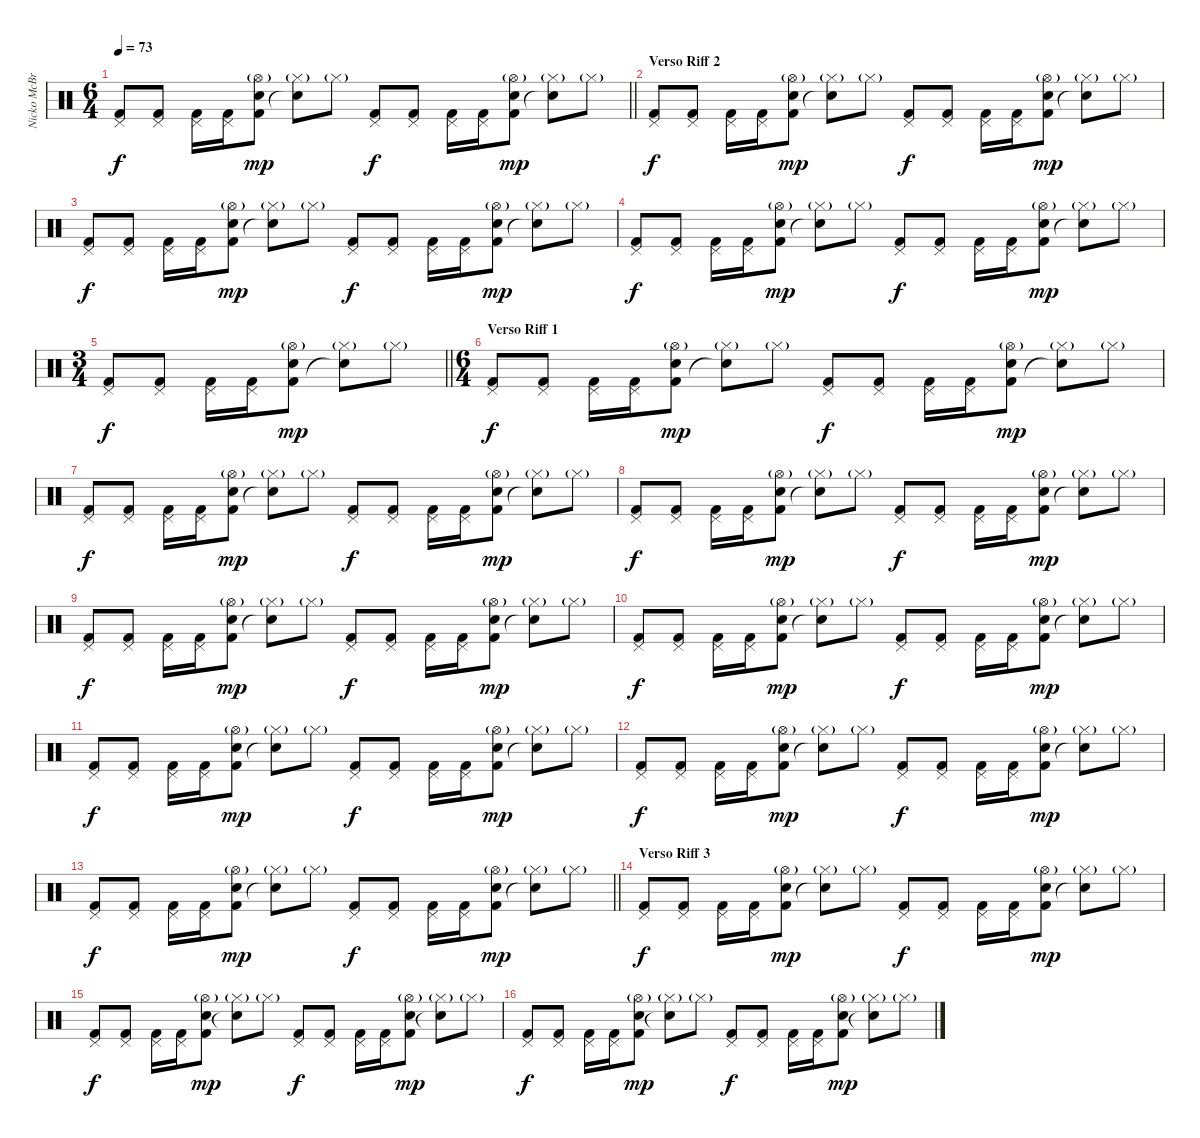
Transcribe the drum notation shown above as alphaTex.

\track ("Nicko McBrain" "Nicko McBr") {instrument percussion}
\staff {score}
\articulation defaults
\ts (6 4)
\tempo 73
\clef neutral
\barLineRight lightlight
\ks c
("Kick (hit) 2" "Pedal Hi-Hat (hit)").8{dy f} ("Kick (hit) 2" "Pedal Hi-Hat (hit)").8 ("Kick (hit) 2" "Pedal Hi-Hat (hit)").16 ("Kick (hit) 2" "Pedal Hi-Hat (hit)").16 ("Snare (hit) 2" "Kick (hit) 2" "Hi-Hat (open)"{g}).8{dy mp} ("Hi-Hat (closed)"{g} "Snare (hit)"{t}).8 "Hi-Hat (closed)"{g}.8 ("Kick (hit) 2" "Pedal Hi-Hat (hit)").8{dy f} ("Kick (hit) 2" "Pedal Hi-Hat (hit)").8 ("Kick (hit) 2" "Pedal Hi-Hat (hit)").16 ("Kick (hit) 2" "Pedal Hi-Hat (hit)").16 ("Snare (hit) 2" "Kick (hit) 2" "Hi-Hat (open)"{g}).8{dy mp} ("Hi-Hat (closed)"{g} "Snare (hit)"{t}).8 "Hi-Hat (closed)"{g}.8 |
\section ("" "Verso Riff 2")
("Kick (hit) 2" "Pedal Hi-Hat (hit)").8{dy f} ("Kick (hit) 2" "Pedal Hi-Hat (hit)").8 ("Kick (hit) 2" "Pedal Hi-Hat (hit)").16 ("Kick (hit) 2" "Pedal Hi-Hat (hit)").16 ("Snare (hit) 2" "Kick (hit) 2" "Hi-Hat (open)"{g}).8{dy mp} ("Hi-Hat (closed)"{g} "Snare (hit)"{t}).8 "Hi-Hat (closed)"{g}.8 ("Kick (hit) 2" "Pedal Hi-Hat (hit)").8{dy f} ("Kick (hit) 2" "Pedal Hi-Hat (hit)").8 ("Kick (hit) 2" "Pedal Hi-Hat (hit)").16 ("Kick (hit) 2" "Pedal Hi-Hat (hit)").16 ("Snare (hit) 2" "Kick (hit) 2" "Hi-Hat (open)"{g}).8{dy mp} ("Hi-Hat (closed)"{g} "Snare (hit)"{t}).8 "Hi-Hat (closed)"{g}.8 |
("Kick (hit) 2" "Pedal Hi-Hat (hit)").8{dy f} ("Kick (hit) 2" "Pedal Hi-Hat (hit)").8 ("Kick (hit) 2" "Pedal Hi-Hat (hit)").16 ("Kick (hit) 2" "Pedal Hi-Hat (hit)").16 ("Snare (hit) 2" "Kick (hit) 2" "Hi-Hat (open)"{g}).8{dy mp} ("Hi-Hat (closed)"{g} "Snare (hit)"{t}).8 "Hi-Hat (closed)"{g}.8 ("Kick (hit) 2" "Pedal Hi-Hat (hit)").8{dy f} ("Kick (hit) 2" "Pedal Hi-Hat (hit)").8 ("Kick (hit) 2" "Pedal Hi-Hat (hit)").16 ("Kick (hit) 2" "Pedal Hi-Hat (hit)").16 ("Snare (hit) 2" "Kick (hit) 2" "Hi-Hat (open)"{g}).8{dy mp} ("Hi-Hat (closed)"{g} "Snare (hit)"{t}).8 "Hi-Hat (closed)"{g}.8 |
("Kick (hit) 2" "Pedal Hi-Hat (hit)").8{dy f} ("Kick (hit) 2" "Pedal Hi-Hat (hit)").8 ("Kick (hit) 2" "Pedal Hi-Hat (hit)").16 ("Kick (hit) 2" "Pedal Hi-Hat (hit)").16 ("Snare (hit) 2" "Kick (hit) 2" "Hi-Hat (open)"{g}).8{dy mp} ("Hi-Hat (closed)"{g} "Snare (hit)"{t}).8 "Hi-Hat (closed)"{g}.8 ("Kick (hit) 2" "Pedal Hi-Hat (hit)").8{dy f} ("Kick (hit) 2" "Pedal Hi-Hat (hit)").8 ("Kick (hit) 2" "Pedal Hi-Hat (hit)").16 ("Kick (hit) 2" "Pedal Hi-Hat (hit)").16 ("Snare (hit) 2" "Kick (hit) 2" "Hi-Hat (open)"{g}).8{dy mp} ("Hi-Hat (closed)"{g} "Snare (hit)"{t}).8 "Hi-Hat (closed)"{g}.8 |
\ts (3 4)
\barLineRight lightlight
("Kick (hit) 2" "Pedal Hi-Hat (hit)").8{dy f} ("Kick (hit) 2" "Pedal Hi-Hat (hit)").8 ("Kick (hit) 2" "Pedal Hi-Hat (hit)").16 ("Kick (hit) 2" "Pedal Hi-Hat (hit)").16 ("Snare (hit) 2" "Kick (hit) 2" "Hi-Hat (open)"{g}).8{dy mp} ("Hi-Hat (closed)"{g} "Snare (hit)"{t}).8 "Hi-Hat (closed)"{g}.8 |
\ts (6 4)
\section ("" "Verso Riff 1")
("Kick (hit) 2" "Pedal Hi-Hat (hit)").8{dy f} ("Kick (hit) 2" "Pedal Hi-Hat (hit)").8 ("Kick (hit) 2" "Pedal Hi-Hat (hit)").16 ("Kick (hit) 2" "Pedal Hi-Hat (hit)").16 ("Snare (hit) 2" "Kick (hit) 2" "Hi-Hat (open)"{g}).8{dy mp} ("Hi-Hat (closed)"{g} "Snare (hit)"{t}).8 "Hi-Hat (closed)"{g}.8 ("Kick (hit) 2" "Pedal Hi-Hat (hit)").8{dy f} ("Kick (hit) 2" "Pedal Hi-Hat (hit)").8 ("Kick (hit) 2" "Pedal Hi-Hat (hit)").16 ("Kick (hit) 2" "Pedal Hi-Hat (hit)").16 ("Snare (hit) 2" "Kick (hit) 2" "Hi-Hat (open)"{g}).8{dy mp} ("Hi-Hat (closed)"{g} "Snare (hit)"{t}).8 "Hi-Hat (closed)"{g}.8 |
("Kick (hit) 2" "Pedal Hi-Hat (hit)").8{dy f} ("Kick (hit) 2" "Pedal Hi-Hat (hit)").8 ("Kick (hit) 2" "Pedal Hi-Hat (hit)").16 ("Kick (hit) 2" "Pedal Hi-Hat (hit)").16 ("Snare (hit) 2" "Kick (hit) 2" "Hi-Hat (open)"{g}).8{dy mp} ("Hi-Hat (closed)"{g} "Snare (hit)"{t}).8 "Hi-Hat (closed)"{g}.8 ("Kick (hit) 2" "Pedal Hi-Hat (hit)").8{dy f} ("Kick (hit) 2" "Pedal Hi-Hat (hit)").8 ("Kick (hit) 2" "Pedal Hi-Hat (hit)").16 ("Kick (hit) 2" "Pedal Hi-Hat (hit)").16 ("Snare (hit) 2" "Kick (hit) 2" "Hi-Hat (open)"{g}).8{dy mp} ("Hi-Hat (closed)"{g} "Snare (hit)"{t}).8 "Hi-Hat (closed)"{g}.8 |
("Kick (hit) 2" "Pedal Hi-Hat (hit)").8{dy f} ("Kick (hit) 2" "Pedal Hi-Hat (hit)").8 ("Kick (hit) 2" "Pedal Hi-Hat (hit)").16 ("Kick (hit) 2" "Pedal Hi-Hat (hit)").16 ("Snare (hit) 2" "Kick (hit) 2" "Hi-Hat (open)"{g}).8{dy mp} ("Hi-Hat (closed)"{g} "Snare (hit)"{t}).8 "Hi-Hat (closed)"{g}.8 ("Kick (hit) 2" "Pedal Hi-Hat (hit)").8{dy f} ("Kick (hit) 2" "Pedal Hi-Hat (hit)").8 ("Kick (hit) 2" "Pedal Hi-Hat (hit)").16 ("Kick (hit) 2" "Pedal Hi-Hat (hit)").16 ("Snare (hit) 2" "Kick (hit) 2" "Hi-Hat (open)"{g}).8{dy mp} ("Hi-Hat (closed)"{g} "Snare (hit)"{t}).8 "Hi-Hat (closed)"{g}.8 |
("Kick (hit) 2" "Pedal Hi-Hat (hit)").8{dy f} ("Kick (hit) 2" "Pedal Hi-Hat (hit)").8 ("Kick (hit) 2" "Pedal Hi-Hat (hit)").16 ("Kick (hit) 2" "Pedal Hi-Hat (hit)").16 ("Snare (hit) 2" "Kick (hit) 2" "Hi-Hat (open)"{g}).8{dy mp} ("Hi-Hat (closed)"{g} "Snare (hit)"{t}).8 "Hi-Hat (closed)"{g}.8 ("Kick (hit) 2" "Pedal Hi-Hat (hit)").8{dy f} ("Kick (hit) 2" "Pedal Hi-Hat (hit)").8 ("Kick (hit) 2" "Pedal Hi-Hat (hit)").16 ("Kick (hit) 2" "Pedal Hi-Hat (hit)").16 ("Snare (hit) 2" "Kick (hit) 2" "Hi-Hat (open)"{g}).8{dy mp} ("Hi-Hat (closed)"{g} "Snare (hit)"{t}).8 "Hi-Hat (closed)"{g}.8 |
("Kick (hit) 2" "Pedal Hi-Hat (hit)").8{dy f} ("Kick (hit) 2" "Pedal Hi-Hat (hit)").8 ("Kick (hit) 2" "Pedal Hi-Hat (hit)").16 ("Kick (hit) 2" "Pedal Hi-Hat (hit)").16 ("Snare (hit) 2" "Kick (hit) 2" "Hi-Hat (open)"{g}).8{dy mp} ("Hi-Hat (closed)"{g} "Snare (hit)"{t}).8 "Hi-Hat (closed)"{g}.8 ("Kick (hit) 2" "Pedal Hi-Hat (hit)").8{dy f} ("Kick (hit) 2" "Pedal Hi-Hat (hit)").8 ("Kick (hit) 2" "Pedal Hi-Hat (hit)").16 ("Kick (hit) 2" "Pedal Hi-Hat (hit)").16 ("Snare (hit) 2" "Kick (hit) 2" "Hi-Hat (open)"{g}).8{dy mp} ("Hi-Hat (closed)"{g} "Snare (hit)"{t}).8 "Hi-Hat (closed)"{g}.8 |
("Kick (hit) 2" "Pedal Hi-Hat (hit)").8{dy f} ("Kick (hit) 2" "Pedal Hi-Hat (hit)").8 ("Kick (hit) 2" "Pedal Hi-Hat (hit)").16 ("Kick (hit) 2" "Pedal Hi-Hat (hit)").16 ("Snare (hit) 2" "Kick (hit) 2" "Hi-Hat (open)"{g}).8{dy mp} ("Hi-Hat (closed)"{g} "Snare (hit)"{t}).8 "Hi-Hat (closed)"{g}.8 ("Kick (hit) 2" "Pedal Hi-Hat (hit)").8{dy f} ("Kick (hit) 2" "Pedal Hi-Hat (hit)").8 ("Kick (hit) 2" "Pedal Hi-Hat (hit)").16 ("Kick (hit) 2" "Pedal Hi-Hat (hit)").16 ("Snare (hit) 2" "Kick (hit) 2" "Hi-Hat (open)"{g}).8{dy mp} ("Hi-Hat (closed)"{g} "Snare (hit)"{t}).8 "Hi-Hat (closed)"{g}.8 |
("Kick (hit) 2" "Pedal Hi-Hat (hit)").8{dy f} ("Kick (hit) 2" "Pedal Hi-Hat (hit)").8 ("Kick (hit) 2" "Pedal Hi-Hat (hit)").16 ("Kick (hit) 2" "Pedal Hi-Hat (hit)").16 ("Snare (hit) 2" "Kick (hit) 2" "Hi-Hat (open)"{g}).8{dy mp} ("Hi-Hat (closed)"{g} "Snare (hit)"{t}).8 "Hi-Hat (closed)"{g}.8 ("Kick (hit) 2" "Pedal Hi-Hat (hit)").8{dy f} ("Kick (hit) 2" "Pedal Hi-Hat (hit)").8 ("Kick (hit) 2" "Pedal Hi-Hat (hit)").16 ("Kick (hit) 2" "Pedal Hi-Hat (hit)").16 ("Snare (hit) 2" "Kick (hit) 2" "Hi-Hat (open)"{g}).8{dy mp} ("Hi-Hat (closed)"{g} "Snare (hit)"{t}).8 "Hi-Hat (closed)"{g}.8 |
\barLineRight lightlight
("Kick (hit) 2" "Pedal Hi-Hat (hit)").8{dy f} ("Kick (hit) 2" "Pedal Hi-Hat (hit)").8 ("Kick (hit) 2" "Pedal Hi-Hat (hit)").16 ("Kick (hit) 2" "Pedal Hi-Hat (hit)").16 ("Snare (hit) 2" "Kick (hit) 2" "Hi-Hat (open)"{g}).8{dy mp} ("Hi-Hat (closed)"{g} "Snare (hit)"{t}).8 "Hi-Hat (closed)"{g}.8 ("Kick (hit) 2" "Pedal Hi-Hat (hit)").8{dy f} ("Kick (hit) 2" "Pedal Hi-Hat (hit)").8 ("Kick (hit) 2" "Pedal Hi-Hat (hit)").16 ("Kick (hit) 2" "Pedal Hi-Hat (hit)").16 ("Snare (hit) 2" "Kick (hit) 2" "Hi-Hat (open)"{g}).8{dy mp} ("Hi-Hat (closed)"{g} "Snare (hit)"{t}).8 "Hi-Hat (closed)"{g}.8 |
\section ("" "Verso Riff 3")
("Kick (hit) 2" "Pedal Hi-Hat (hit)").8{dy f} ("Kick (hit) 2" "Pedal Hi-Hat (hit)").8 ("Kick (hit) 2" "Pedal Hi-Hat (hit)").16 ("Kick (hit) 2" "Pedal Hi-Hat (hit)").16 ("Snare (hit) 2" "Kick (hit) 2" "Hi-Hat (open)"{g}).8{dy mp} ("Hi-Hat (closed)"{g} "Snare (hit)"{t}).8 "Hi-Hat (closed)"{g}.8 ("Kick (hit) 2" "Pedal Hi-Hat (hit)").8{dy f} ("Kick (hit) 2" "Pedal Hi-Hat (hit)").8 ("Kick (hit) 2" "Pedal Hi-Hat (hit)").16 ("Kick (hit) 2" "Pedal Hi-Hat (hit)").16 ("Snare (hit) 2" "Kick (hit) 2" "Hi-Hat (open)"{g}).8{dy mp} ("Hi-Hat (closed)"{g} "Snare (hit)"{t}).8 "Hi-Hat (closed)"{g}.8 |
("Kick (hit) 2" "Pedal Hi-Hat (hit)").8{dy f} ("Kick (hit) 2" "Pedal Hi-Hat (hit)").8 ("Kick (hit) 2" "Pedal Hi-Hat (hit)").16 ("Kick (hit) 2" "Pedal Hi-Hat (hit)").16 ("Snare (hit) 2" "Kick (hit) 2" "Hi-Hat (open)"{g}).8{dy mp} ("Hi-Hat (closed)"{g} "Snare (hit)"{t}).8 "Hi-Hat (closed)"{g}.8 ("Kick (hit) 2" "Pedal Hi-Hat (hit)").8{dy f} ("Kick (hit) 2" "Pedal Hi-Hat (hit)").8 ("Kick (hit) 2" "Pedal Hi-Hat (hit)").16 ("Kick (hit) 2" "Pedal Hi-Hat (hit)").16 ("Snare (hit) 2" "Kick (hit) 2" "Hi-Hat (open)"{g}).8{dy mp} ("Hi-Hat (closed)"{g} "Snare (hit)"{t}).8 "Hi-Hat (closed)"{g}.8 |
("Kick (hit) 2" "Pedal Hi-Hat (hit)").8{dy f} ("Kick (hit) 2" "Pedal Hi-Hat (hit)").8 ("Kick (hit) 2" "Pedal Hi-Hat (hit)").16 ("Kick (hit) 2" "Pedal Hi-Hat (hit)").16 ("Snare (hit) 2" "Kick (hit) 2" "Hi-Hat (open)"{g}).8{dy mp} ("Hi-Hat (closed)"{g} "Snare (hit)"{t}).8 "Hi-Hat (closed)"{g}.8 ("Kick (hit) 2" "Pedal Hi-Hat (hit)").8{dy f} ("Kick (hit) 2" "Pedal Hi-Hat (hit)").8 ("Kick (hit) 2" "Pedal Hi-Hat (hit)").16 ("Kick (hit) 2" "Pedal Hi-Hat (hit)").16 ("Snare (hit) 2" "Kick (hit) 2" "Hi-Hat (open)"{g}).8{dy mp} ("Hi-Hat (closed)"{g} "Snare (hit)"{t}).8 "Hi-Hat (closed)"{g}.8
